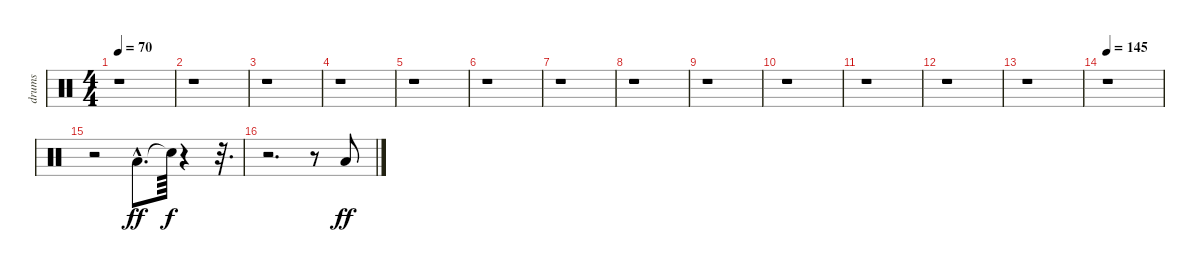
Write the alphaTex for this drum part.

\track ("drums" "drums") {instrument percussion}
\staff {score}
\articulation defaults
\ts (4 4)
\tempo 70
\clef neutral
\ks c
r.1{dy f} |
r.1 |
r.1 |
r.1 |
r.1 |
r.1 |
r.1 |
r.1 |
r.1 |
r.1 |
r.1 |
r.1 |
r.1 |
\tempo 145
r.1 |
r.2 "Low Tom (hit)"{hac}.8{d dy ff} "Snare (hit)"{t}.64{dy f} r.4 r.32{d} |
r.2{d} r.8 "Low Tom (hit)".8{dy ff}
